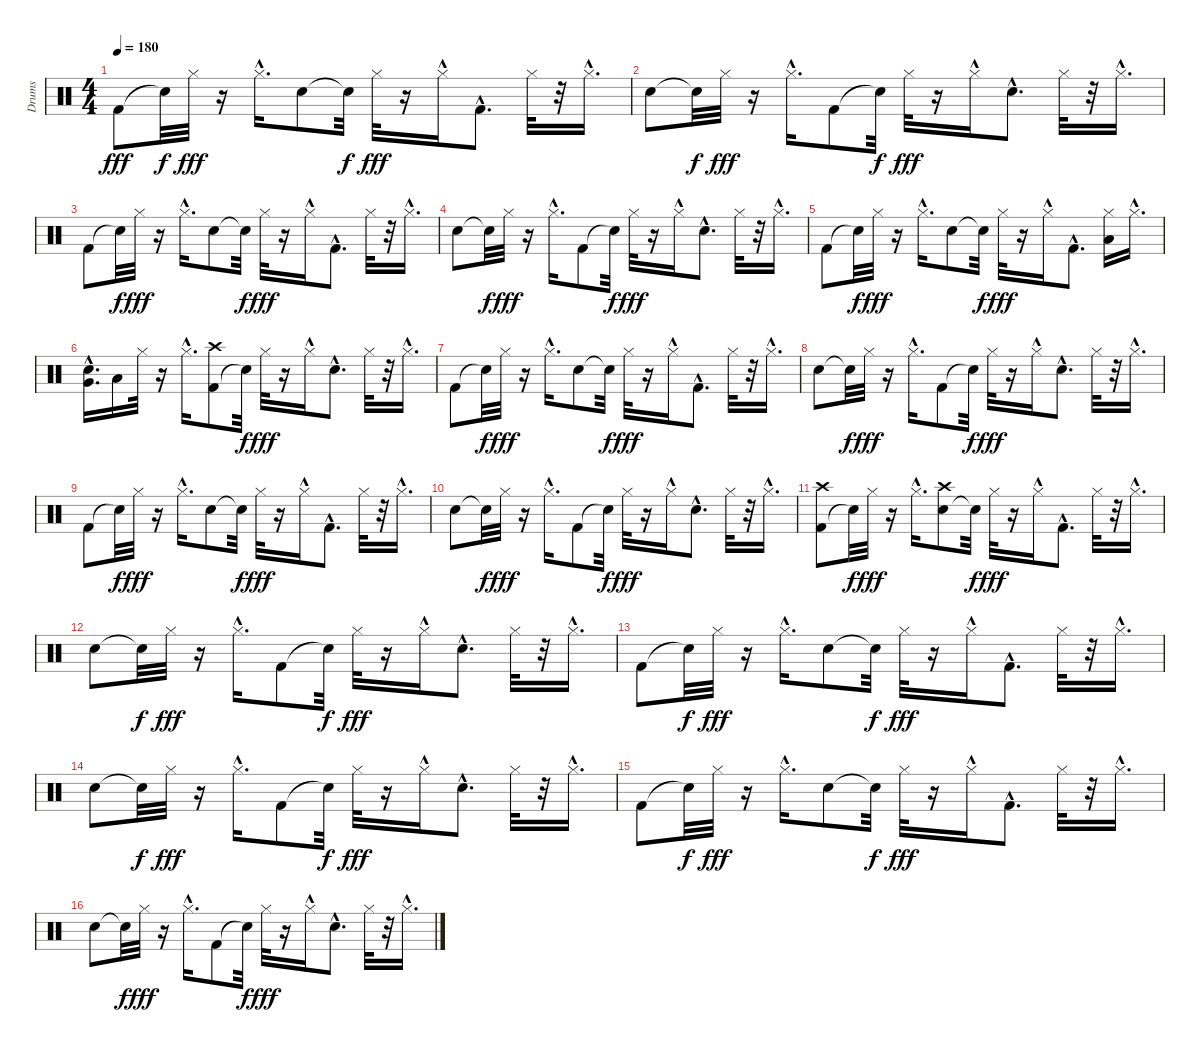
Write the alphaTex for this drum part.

\track ("Drums" "Drums") {instrument percussion}
\staff {score}
\articulation defaults
\ts (4 4)
\tempo 180
\clef neutral
\ks c "Kick (hit) 2".8{dy fff} "Snare (hit)"{t}.32{dy f} "Hi-Hat (closed)".32{dy fff}
r.16 "Hi-Hat (closed)"{hac}.16{d} "Snare (hit) 2".8 "Snare (hit)"{t}.32{dy f} "Hi-Hat (closed)".32{dy fff} r.16 "Hi-Hat (closed)"{hac}.16 "Kick (hit) 2"{hac}.8{d} "Hi-Hat (closed)".32 r.32 "Hi-Hat (closed)"{hac}.16{d} |
"Snare (hit) 2".8 "Snare (hit)"{t}.32{dy f} "Hi-Hat (closed)".32{dy fff} r.16 "Hi-Hat (closed)"{hac}.16{d} "Kick (hit) 2".8 "Snare (hit)"{t}.32{dy f} "Hi-Hat (closed)".32{dy fff} r.16 "Hi-Hat (closed)"{hac}.16 "Snare (hit) 2"{hac}.8{d} "Hi-Hat (closed)".32 r.32 "Hi-Hat (closed)"{hac}.16{d} |
"Kick (hit) 2".8 "Snare (hit)"{t}.32{dy f} "Hi-Hat (closed)".32{dy fff} r.16 "Hi-Hat (closed)"{hac}.16{d} "Snare (hit) 2".8 "Snare (hit)"{t}.32{dy f} "Hi-Hat (closed)".32{dy fff} r.16 "Hi-Hat (closed)"{hac}.16 "Kick (hit) 2"{hac}.8{d} "Hi-Hat (closed)".32 r.32 "Hi-Hat (closed)"{hac}.16{d} |
"Snare (hit) 2".8 "Snare (hit)"{t}.32{dy f} "Hi-Hat (closed)".32{dy fff} r.16 "Hi-Hat (closed)"{hac}.16{d} "Kick (hit) 2".8 "Snare (hit)"{t}.32{dy f} "Hi-Hat (closed)".32{dy fff} r.16 "Hi-Hat (closed)"{hac}.16 "Snare (hit) 2"{hac}.8{d} "Hi-Hat (closed)".32 r.32 "Hi-Hat (closed)"{hac}.16{d} |
"Kick (hit) 2".8 "Snare (hit)"{t}.32{dy f} "Hi-Hat (closed)".32{dy fff} r.16 "Hi-Hat (closed)"{hac}.16{d} "Snare (hit) 2".8 "Snare (hit)"{t}.32{dy f} "Hi-Hat (closed)".32{dy fff} r.16 "Hi-Hat (closed)"{hac}.16 "Kick (hit) 2"{hac}.8{d} ("Hi-Hat (closed)" "Low Tom (hit)").16 "Hi-Hat (closed)"{hac}.16{d} |
("Snare (hit) 2"{hac} "Very Low Tom (hit)").16{d} "Low Floor Tom (hit)".16 "Hi-Hat (closed)".32 r.16 "Hi-Hat (closed)"{hac}.16{d} ("Kick (hit) 2" "Crash high (hit)").8 "Snare (hit)"{t}.32{dy f} "Hi-Hat (closed)".32{dy fff} r.16 "Hi-Hat (closed)"{hac}.16 "Snare (hit) 2"{hac}.8{d} "Hi-Hat (closed)".32 r.32 "Hi-Hat (closed)"{hac}.16{d} |
"Kick (hit) 2".8 "Snare (hit)"{t}.32{dy f} "Hi-Hat (closed)".32{dy fff} r.16 "Hi-Hat (closed)"{hac}.16{d} "Snare (hit) 2".8 "Snare (hit)"{t}.32{dy f} "Hi-Hat (closed)".32{dy fff} r.16 "Hi-Hat (closed)"{hac}.16 "Kick (hit) 2"{hac}.8{d} "Hi-Hat (closed)".32 r.32 "Hi-Hat (closed)"{hac}.16{d} |
"Snare (hit) 2".8 "Snare (hit)"{t}.32{dy f} "Hi-Hat (closed)".32{dy fff} r.16 "Hi-Hat (closed)"{hac}.16{d} "Kick (hit) 2".8 "Snare (hit)"{t}.32{dy f} "Hi-Hat (closed)".32{dy fff} r.16 "Hi-Hat (closed)"{hac}.16 "Snare (hit) 2"{hac}.8{d} "Hi-Hat (closed)".32 r.32 "Hi-Hat (closed)"{hac}.16{d} |
"Kick (hit) 2".8 "Snare (hit)"{t}.32{dy f} "Hi-Hat (closed)".32{dy fff} r.16 "Hi-Hat (closed)"{hac}.16{d} "Snare (hit) 2".8 "Snare (hit)"{t}.32{dy f} "Hi-Hat (closed)".32{dy fff} r.16 "Hi-Hat (closed)"{hac}.16 "Kick (hit) 2"{hac}.8{d} "Hi-Hat (closed)".32 r.32 "Hi-Hat (closed)"{hac}.16{d} |
"Snare (hit) 2".8 "Snare (hit)"{t}.32{dy f} "Hi-Hat (closed)".32{dy fff} r.16 "Hi-Hat (closed)"{hac}.16{d} "Kick (hit) 2".8 "Snare (hit)"{t}.32{dy f} "Hi-Hat (closed)".32{dy fff} r.16 "Hi-Hat (closed)"{hac}.16 "Snare (hit) 2"{hac}.8{d} "Hi-Hat (closed)".32 r.32 "Hi-Hat (closed)"{hac}.16{d} |
("Kick (hit) 2" "Crash high (hit)").8 "Snare (hit)"{t}.32{dy f} "Hi-Hat (closed)".32{dy fff} r.16 "Hi-Hat (closed)"{hac}.16{d} ("Snare (hit) 2" "Crash high (hit)").8 "Snare (hit)"{t}.32{dy f} "Hi-Hat (closed)".32{dy fff} r.16 "Hi-Hat (closed)"{hac}.16 "Kick (hit) 2"{hac}.8{d} "Hi-Hat (closed)".32 r.32 "Hi-Hat (closed)"{hac}.16{d} |
"Snare (hit) 2".8 "Snare (hit)"{t}.32{dy f} "Hi-Hat (closed)".32{dy fff} r.16 "Hi-Hat (closed)"{hac}.16{d} "Kick (hit) 2".8 "Snare (hit)"{t}.32{dy f} "Hi-Hat (closed)".32{dy fff} r.16 "Hi-Hat (closed)"{hac}.16 "Snare (hit) 2"{hac}.8{d} "Hi-Hat (closed)".32 r.32 "Hi-Hat (closed)"{hac}.16{d} |
"Kick (hit) 2".8 "Snare (hit)"{t}.32{dy f} "Hi-Hat (closed)".32{dy fff} r.16 "Hi-Hat (closed)"{hac}.16{d} "Snare (hit) 2".8 "Snare (hit)"{t}.32{dy f} "Hi-Hat (closed)".32{dy fff} r.16 "Hi-Hat (closed)"{hac}.16 "Kick (hit) 2"{hac}.8{d} "Hi-Hat (closed)".32 r.32 "Hi-Hat (closed)"{hac}.16{d} |
"Snare (hit) 2".8 "Snare (hit)"{t}.32{dy f} "Hi-Hat (closed)".32{dy fff} r.16 "Hi-Hat (closed)"{hac}.16{d} "Kick (hit) 2".8 "Snare (hit)"{t}.32{dy f} "Hi-Hat (closed)".32{dy fff} r.16 "Hi-Hat (closed)"{hac}.16 "Snare (hit) 2"{hac}.8{d} "Hi-Hat (closed)".32 r.32 "Hi-Hat (closed)"{hac}.16{d} |
"Kick (hit) 2".8 "Snare (hit)"{t}.32{dy f} "Hi-Hat (closed)".32{dy fff} r.16 "Hi-Hat (closed)"{hac}.16{d} "Snare (hit) 2".8 "Snare (hit)"{t}.32{dy f} "Hi-Hat (closed)".32{dy fff} r.16 "Hi-Hat (closed)"{hac}.16 "Kick (hit) 2"{hac}.8{d} "Hi-Hat (closed)".32 r.32 "Hi-Hat (closed)"{hac}.16{d} |
"Snare (hit) 2".8 "Snare (hit)"{t}.32{dy f} "Hi-Hat (closed)".32{dy fff} r.16 "Hi-Hat (closed)"{hac}.16{d} "Kick (hit) 2".8 "Snare (hit)"{t}.32{dy f} "Hi-Hat (closed)".32{dy fff} r.16 "Hi-Hat (closed)"{hac}.16 "Snare (hit) 2"{hac}.8{d} "Hi-Hat (closed)".32 r.32 "Hi-Hat (closed)"{hac}.16{d}
